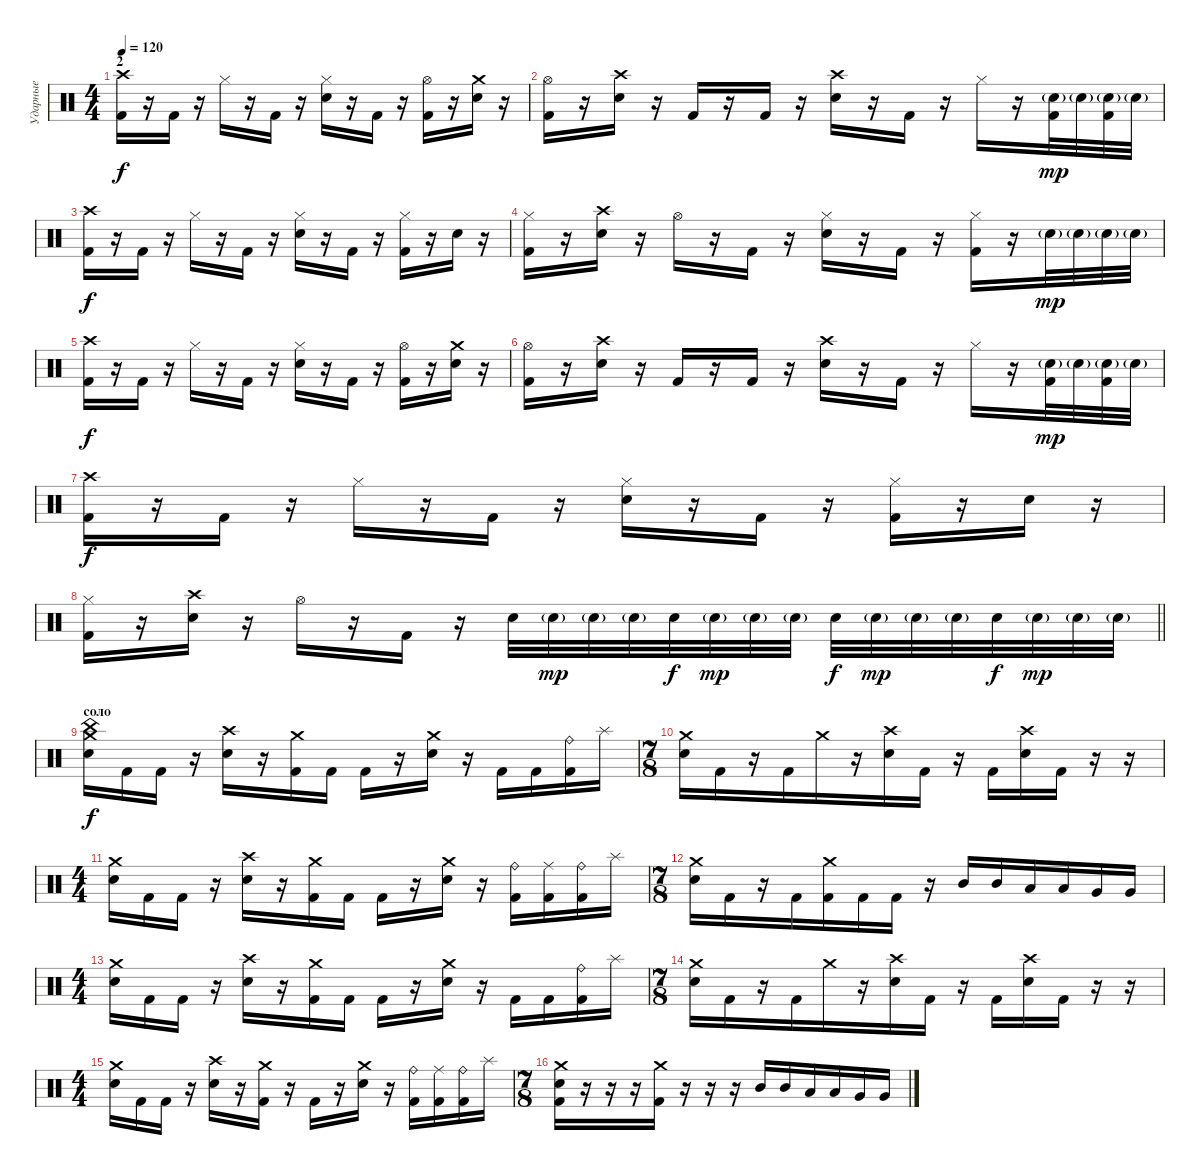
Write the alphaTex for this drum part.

\track ("Ударные" "Ударные") {instrument percussion}
\staff {score}
\articulation defaults
\ts (4 4)
\section ("" "2")
\tempo 120
\clef neutral
\ks c
("Crash high (hit)" "Kick (hit) 2").16{dy f} r.16 "Kick (hit) 2".16 r.16 "Hi-Hat (closed)".16 r.16 "Kick (hit) 2".16 r.16 ("Hi-Hat (closed)" "Electric Snare (hit)").16 r.16 "Kick (hit) 2".16 r.16 ("Hi-Hat (open)" "Kick (hit) 2").16 r.16 ("Crash medium (hit)" "Electric Snare (hit)").16 r.16 |
("Hi-Hat (open)" "Kick (hit) 2").16 r.16 ("Crash high (hit)" "Electric Snare (hit)").16 r.16 "Kick (hit) 2".16 r.16 "Kick (hit) 2".16 r.16 ("Crash high (hit)" "Electric Snare (hit)").16 r.16 "Kick (hit) 2".16 r.16 "Hi-Hat (closed)".16 r.16 ("Electric Snare (hit)"{g} "Kick (hit) 2").32{dy mp} "Electric Snare (hit)"{g}.32 ("Electric Snare (hit)"{g} "Kick (hit) 2").32 "Electric Snare (hit)"{g}.32 |
("Crash high (hit)" "Kick (hit) 2").16{dy f} r.16 "Kick (hit) 2".16 r.16 "Hi-Hat (closed)".16 r.16 "Kick (hit) 2".16 r.16 ("Hi-Hat (closed)" "Electric Snare (hit)").16 r.16 "Kick (hit) 2".16 r.16 ("Hi-Hat (closed)" "Kick (hit) 2").16 r.16 "Electric Snare (hit)".16 r.16 |
("Hi-Hat (closed)" "Kick (hit) 2").16 r.16 ("Crash high (hit)" "Electric Snare (hit)").16 r.16 "Hi-Hat (open)".16 r.16 "Kick (hit) 2".16 r.16 ("Hi-Hat (closed)" "Electric Snare (hit)").16 r.16 "Kick (hit) 2".16 r.16 ("Hi-Hat (closed)" "Kick (hit) 2").16 r.16 "Electric Snare (hit)"{g}.32{dy mp} "Electric Snare (hit)"{g}.32 "Electric Snare (hit)"{g}.32 "Electric Snare (hit)"{g}.32 |
("Crash high (hit)" "Kick (hit) 2").16{dy f} r.16 "Kick (hit) 2".16 r.16 "Hi-Hat (closed)".16 r.16 "Kick (hit) 2".16 r.16 ("Hi-Hat (closed)" "Electric Snare (hit)").16 r.16 "Kick (hit) 2".16 r.16 ("Hi-Hat (open)" "Kick (hit) 2").16 r.16 ("Crash medium (hit)" "Electric Snare (hit)").16 r.16 |
("Hi-Hat (open)" "Kick (hit) 2").16 r.16 ("Crash high (hit)" "Electric Snare (hit)").16 r.16 "Kick (hit) 2".16 r.16 "Kick (hit) 2".16 r.16 ("Crash high (hit)" "Electric Snare (hit)").16 r.16 "Kick (hit) 2".16 r.16 "Hi-Hat (closed)".16 r.16 ("Electric Snare (hit)"{g} "Kick (hit) 2").32{dy mp} "Electric Snare (hit)"{g}.32 ("Electric Snare (hit)"{g} "Kick (hit) 2").32 "Electric Snare (hit)"{g}.32 |
("Crash high (hit)" "Kick (hit) 2").16{dy f} r.16 "Kick (hit) 2".16 r.16 "Hi-Hat (closed)".16 r.16 "Kick (hit) 2".16 r.16 ("Hi-Hat (closed)" "Electric Snare (hit)").16 r.16 "Kick (hit) 2".16 r.16 ("Hi-Hat (closed)" "Kick (hit) 2").16 r.16 "Electric Snare (hit)".16 r.16 |
\barLineRight lightlight
("Hi-Hat (closed)" "Kick (hit) 2").16 r.16 ("Crash high (hit)" "Electric Snare (hit)").16 r.16 "Hi-Hat (open)".16 r.16 "Kick (hit) 2".16 r.16 "Electric Snare (hit)".32 "Electric Snare (hit)"{g}.32{dy mp} "Electric Snare (hit)"{g}.32 "Electric Snare (hit)"{g}.32 "Electric Snare (hit)".32{dy f} "Electric Snare (hit)"{g}.32{dy mp} "Electric Snare (hit)"{g}.32 "Electric Snare (hit)"{g}.32 "Electric Snare (hit)".32{dy f} "Electric Snare (hit)"{g}.32{dy mp} "Electric Snare (hit)"{g}.32 "Electric Snare (hit)"{g}.32 "Electric Snare (hit)".32{dy f} "Electric Snare (hit)"{g}.32{dy mp} "Electric Snare (hit)"{g}.32 "Electric Snare (hit)"{g}.32 |
\section ("" "соло")
("Crash medium (hit)" "China (hit)" "Electric Snare (hit)").16{dy f} "Kick (hit) 2".16 "Kick (hit) 2".16 r.16 ("Crash high (hit)" "Electric Snare (hit)").16 r.16 ("Crash medium (hit)" "Kick (hit) 2").16 "Kick (hit) 2".16 "Kick (hit) 2".16 r.16 ("Crash medium (hit)" "Electric Snare (hit)").16 r.16 "Kick (hit) 2".16 "Kick (hit) 2".16 ("Ride (bell)" "Kick (hit) 2").16 "Splash (hit)".16 |
\ts (7 8)
("Crash medium (hit)" "Electric Snare (hit)").16 "Kick (hit) 2".16 r.16 "Kick (hit) 2".16 "Crash medium (hit)".16 r.16 ("Crash high (hit)" "Electric Snare (hit)").16 "Kick (hit) 2".16 r.16 "Kick (hit) 2".16 ("Crash high (hit)" "Electric Snare (hit)").16 "Kick (hit) 2".16 r.16 r.16 |
\ts (4 4)
("Crash medium (hit)" "Electric Snare (hit)").16 "Kick (hit) 2".16 "Kick (hit) 2".16 r.16 ("Crash high (hit)" "Electric Snare (hit)").16 r.16 ("Crash medium (hit)" "Kick (hit) 2").16 "Kick (hit) 2".16 "Kick (hit) 2".16 r.16 ("Crash medium (hit)" "Electric Snare (hit)").16 r.16 ("Ride (bell)" "Kick (hit) 2").16 ("Ride (middle)" "Kick (hit) 2").16 ("Ride (bell)" "Kick (hit) 2").16 "Splash (hit)".16 |
\ts (7 8)
("Crash medium (hit)" "Electric Snare (hit)").16 "Kick (hit) 2".16 r.16 "Kick (hit) 2".16 ("Crash medium (hit)" "Kick (hit) 2").16 "Kick (hit) 2".16 "Kick (hit) 2".16 r.16 "Mid Tom (hit)".16 "Mid Tom (hit)".16 "Low Tom (hit)".16 "Low Tom (hit)".16 "Very Low Tom (hit)".16 "Very Low Tom (hit)".16 |
\ts (4 4)
("Crash medium (hit)" "Electric Snare (hit)").16 "Kick (hit) 2".16 "Kick (hit) 2".16 r.16 ("Crash high (hit)" "Electric Snare (hit)").16 r.16 ("Crash medium (hit)" "Kick (hit) 2").16 "Kick (hit) 2".16 "Kick (hit) 2".16 r.16 ("Crash medium (hit)" "Electric Snare (hit)").16 r.16 "Kick (hit) 2".16 "Kick (hit) 2".16 ("Ride (bell)" "Kick (hit) 2").16 "Splash (hit)".16 |
\ts (7 8)
("Crash medium (hit)" "Electric Snare (hit)").16 "Kick (hit) 2".16 r.16 "Kick (hit) 2".16 "Crash medium (hit)".16 r.16 ("Crash high (hit)" "Electric Snare (hit)").16 "Kick (hit) 2".16 r.16 "Kick (hit) 2".16 ("Crash high (hit)" "Electric Snare (hit)").16 "Kick (hit) 2".16 r.16 r.16 |
\ts (4 4)
("Crash medium (hit)" "Electric Snare (hit)").16 "Kick (hit) 2".16 "Kick (hit) 2".16 r.16 ("Crash high (hit)" "Electric Snare (hit)").16 r.16 ("Crash medium (hit)" "Kick (hit) 2").16 r.16 "Kick (hit) 2".16 r.16 ("Crash medium (hit)" "Electric Snare (hit)").16 r.16 ("Ride (bell)" "Kick (hit) 2").16 ("Ride (middle)" "Kick (hit) 2").16 ("Ride (bell)" "Kick (hit) 2").16 "Splash (hit)".16 |
\ts (7 8)
("Crash medium (hit)" "Electric Snare (hit)" "Kick (hit) 2").16 r.16 r.16 r.16 ("Crash medium (hit)" "Kick (hit) 2").16 r.16 r.16 r.16 "Mid Tom (hit)".16 "Mid Tom (hit)".16 "Low Tom (hit)".16 "Low Tom (hit)".16 "Very Low Tom (hit)".16 "Very Low Tom (hit)".16
